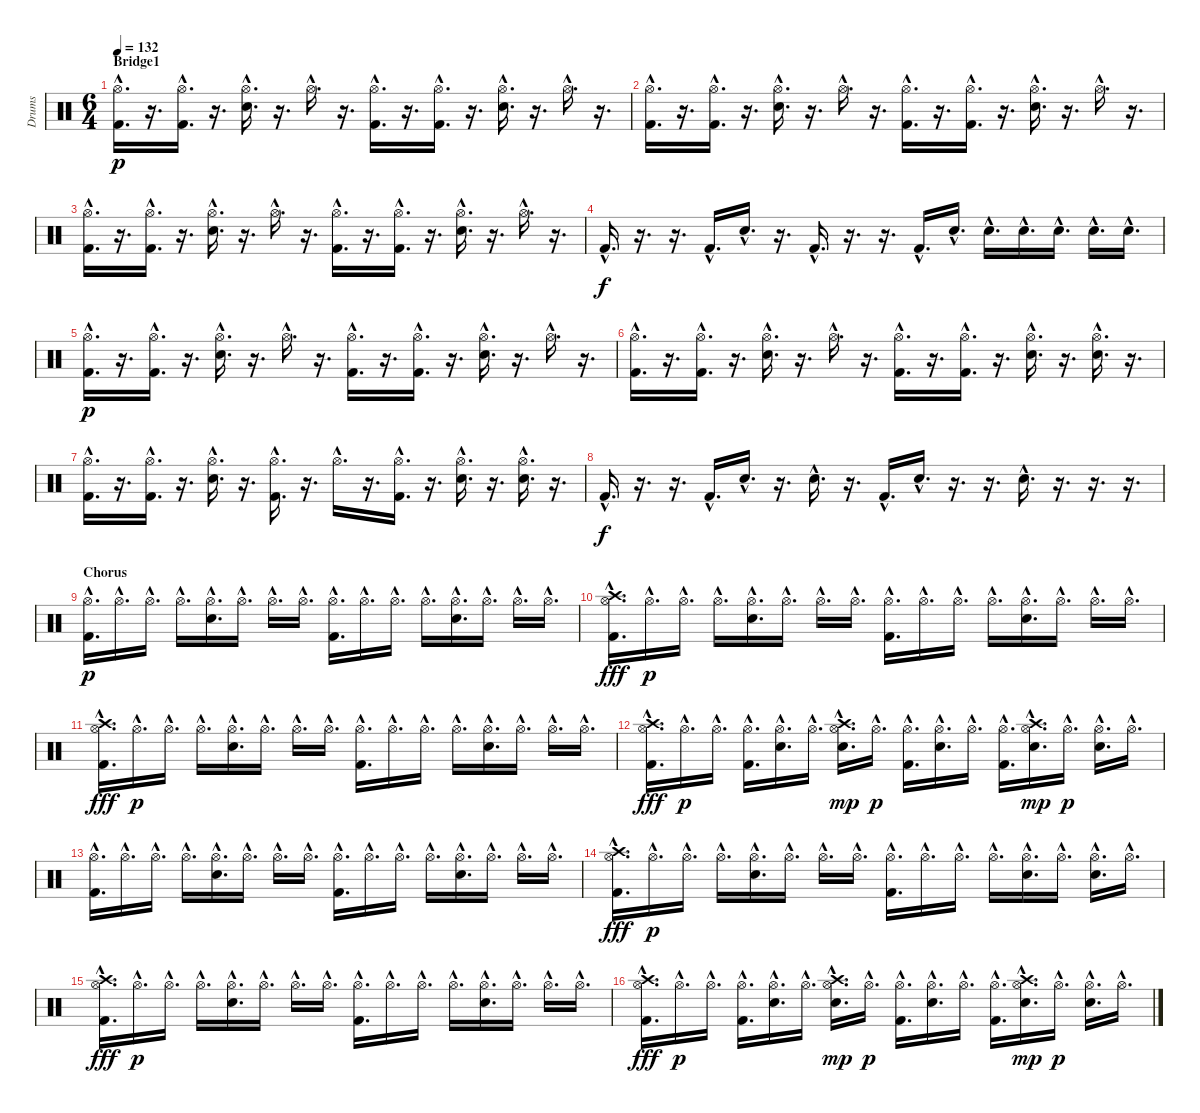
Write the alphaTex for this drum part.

\track ("Drums" "Drums") {instrument percussion}
\staff {score}
\articulation defaults
\ts (6 4)
\section ("" "Bridge1")
\tempo 132
\clef neutral
\ks c
("Hi-Hat (open)"{hac} "Kick (hit) 2"{hac}).16{d dy p} r.16{d} ("Hi-Hat (open)"{hac} "Kick (hit) 2"{hac}).16{d} r.16{d} ("Hi-Hat (open)"{hac} "Electric Snare (hit)"{hac}).16{d} r.16{d} "Hi-Hat (open)"{hac}.16{d} r.16{d} ("Hi-Hat (open)"{hac} "Kick (hit) 2"{hac}).16{d} r.16{d} ("Hi-Hat (open)"{hac} "Kick (hit) 2"{hac}).16{d} r.16{d} ("Hi-Hat (open)"{hac} "Electric Snare (hit)"{hac}).16{d} r.16{d} "Hi-Hat (open)"{hac}.16{d} r.16{d} |
("Hi-Hat (open)"{hac} "Kick (hit) 2"{hac}).16{d} r.16{d} ("Hi-Hat (open)"{hac} "Kick (hit) 2"{hac}).16{d} r.16{d} ("Hi-Hat (open)"{hac} "Electric Snare (hit)"{hac}).16{d} r.16{d} "Hi-Hat (open)"{hac}.16{d} r.16{d} ("Hi-Hat (open)"{hac} "Kick (hit) 2"{hac}).16{d} r.16{d} ("Hi-Hat (open)"{hac} "Kick (hit) 2"{hac}).16{d} r.16{d} ("Hi-Hat (open)"{hac} "Electric Snare (hit)"{hac}).16{d} r.16{d} "Hi-Hat (open)"{hac}.16{d} r.16{d} |
("Hi-Hat (open)"{hac} "Kick (hit) 2"{hac}).16{d} r.16{d} ("Hi-Hat (open)"{hac} "Kick (hit) 2"{hac}).16{d} r.16{d} ("Hi-Hat (open)"{hac} "Electric Snare (hit)"{hac}).16{d} r.16{d} "Hi-Hat (open)"{hac}.16{d} r.16{d} ("Hi-Hat (open)"{hac} "Kick (hit) 2"{hac}).16{d} r.16{d} ("Hi-Hat (open)"{hac} "Kick (hit) 2"{hac}).16{d} r.16{d} ("Hi-Hat (open)"{hac} "Electric Snare (hit)"{hac}).16{d} r.16{d} "Hi-Hat (open)"{hac}.16{d} r.16{d} |
"Kick (hit) 2"{hac}.16{d dy f} r.16{d} r.16{d} "Kick (hit) 2"{hac}.16{d} "Electric Snare (hit)"{hac}.16{d} r.16{d} "Kick (hit) 2"{hac}.16{d} r.16{d} r.16{d} "Kick (hit) 2"{hac}.16{d} "Electric Snare (hit)"{hac}.16{d} "Electric Snare (hit)"{hac}.16{d} "Electric Snare (hit)"{hac}.16{d} "Electric Snare (hit)"{hac}.16{d} "Electric Snare (hit)"{hac}.16{d} "Electric Snare (hit)"{hac}.16{d} |
("Hi-Hat (open)"{hac} "Kick (hit) 2"{hac}).16{d dy p} r.16{d} ("Hi-Hat (open)"{hac} "Kick (hit) 2"{hac}).16{d} r.16{d} ("Hi-Hat (open)"{hac} "Electric Snare (hit)"{hac}).16{d} r.16{d} "Hi-Hat (open)"{hac}.16{d} r.16{d} ("Hi-Hat (open)"{hac} "Kick (hit) 2"{hac}).16{d} r.16{d} ("Hi-Hat (open)"{hac} "Kick (hit) 2"{hac}).16{d} r.16{d} ("Hi-Hat (open)"{hac} "Electric Snare (hit)"{hac}).16{d} r.16{d} "Hi-Hat (open)"{hac}.16{d} r.16{d} |
("Hi-Hat (open)"{hac} "Kick (hit) 2"{hac}).16{d} r.16{d} ("Hi-Hat (open)"{hac} "Kick (hit) 2"{hac}).16{d} r.16{d} ("Hi-Hat (open)"{hac} "Electric Snare (hit)"{hac}).16{d} r.16{d} "Hi-Hat (open)"{hac}.16{d} r.16{d} ("Hi-Hat (open)"{hac} "Kick (hit) 2"{hac}).16{d} r.16{d} ("Hi-Hat (open)"{hac} "Kick (hit) 2"{hac}).16{d} r.16{d} ("Hi-Hat (open)"{hac} "Electric Snare (hit)"{hac}).16{d} r.16{d} ("Hi-Hat (open)"{hac} "Electric Snare (hit)"{hac}).16{d} r.16{d} |
("Hi-Hat (open)"{hac} "Kick (hit) 2"{hac}).16{d} r.16{d} ("Hi-Hat (open)"{hac} "Kick (hit) 2"{hac}).16{d} r.16{d} ("Hi-Hat (open)"{hac} "Electric Snare (hit)"{hac}).16{d} r.16{d} ("Hi-Hat (open)"{hac} "Kick (hit) 2"{hac}).16{d} r.16{d} "Hi-Hat (open)"{hac}.16{d} r.16{d} ("Hi-Hat (open)"{hac} "Kick (hit) 2"{hac}).16{d} r.16{d} ("Hi-Hat (open)"{hac} "Electric Snare (hit)"{hac}).16{d} r.16{d} ("Hi-Hat (open)"{hac} "Electric Snare (hit)"{hac}).16{d} r.16{d} |
"Kick (hit) 2"{hac}.16{d dy f} r.16{d} r.16{d} "Kick (hit) 2"{hac}.16{d} "Electric Snare (hit)"{hac}.16{d} r.16{d} "Electric Snare (hit)"{hac}.16{d} r.16{d} "Kick (hit) 2"{hac}.16{d} "Electric Snare (hit)"{hac}.16{d} r.16{d} r.16{d} "Electric Snare (hit)"{hac}.16{d} r.16{d} r.16{d} r.16{d} |
\section ("" "Chorus")
("Kick (hit) 2"{hac} "Hi-Hat (open)"{hac}).16{d dy p} "Hi-Hat (open)"{hac}.16{d} "Hi-Hat (open)"{hac}.16{d} "Hi-Hat (open)"{hac}.16{d} ("Electric Snare (hit)"{hac} "Hi-Hat (open)"{hac}).16{d} "Hi-Hat (open)"{hac}.16{d} "Hi-Hat (open)"{hac}.16{d} "Hi-Hat (open)"{hac}.16{d} ("Kick (hit) 2"{hac} "Hi-Hat (open)"{hac}).16{d} "Hi-Hat (open)"{hac}.16{d} "Hi-Hat (open)"{hac}.16{d} "Hi-Hat (open)"{hac}.16{d} ("Electric Snare (hit)"{hac} "Hi-Hat (open)"{hac}).16{d} "Hi-Hat (open)"{hac}.16{d} "Hi-Hat (open)"{hac}.16{d} "Hi-Hat (open)"{hac}.16{d} |
("Crash high (hit)"{hac} "Hi-Hat (open)"{hac} "Kick (hit) 2"{hac}).16{d dy fff} "Hi-Hat (open)"{hac}.16{d dy p} "Hi-Hat (open)"{hac}.16{d} "Hi-Hat (open)"{hac}.16{d} ("Electric Snare (hit)"{hac} "Hi-Hat (open)"{hac}).16{d} "Hi-Hat (open)"{hac}.16{d} "Hi-Hat (open)"{hac}.16{d} "Hi-Hat (open)"{hac}.16{d} ("Kick (hit) 2"{hac} "Hi-Hat (open)"{hac}).16{d} "Hi-Hat (open)"{hac}.16{d} "Hi-Hat (open)"{hac}.16{d} "Hi-Hat (open)"{hac}.16{d} ("Electric Snare (hit)"{hac} "Hi-Hat (open)"{hac}).16{d} "Hi-Hat (open)"{hac}.16{d} "Hi-Hat (open)"{hac}.16{d} "Hi-Hat (open)"{hac}.16{d} |
("Crash high (hit)"{hac} "Hi-Hat (open)"{hac} "Kick (hit) 2"{hac}).16{d dy fff} "Hi-Hat (open)"{hac}.16{d dy p} "Hi-Hat (open)"{hac}.16{d} "Hi-Hat (open)"{hac}.16{d} ("Electric Snare (hit)"{hac} "Hi-Hat (open)"{hac}).16{d} "Hi-Hat (open)"{hac}.16{d} "Hi-Hat (open)"{hac}.16{d} "Hi-Hat (open)"{hac}.16{d} ("Kick (hit) 2"{hac} "Hi-Hat (open)"{hac}).16{d} "Hi-Hat (open)"{hac}.16{d} "Hi-Hat (open)"{hac}.16{d} "Hi-Hat (open)"{hac}.16{d} ("Electric Snare (hit)"{hac} "Hi-Hat (open)"{hac}).16{d} "Hi-Hat (open)"{hac}.16{d} "Hi-Hat (open)"{hac}.16{d} "Hi-Hat (open)"{hac}.16{d} |
("Crash high (hit)"{hac} "Hi-Hat (open)"{hac} "Kick (hit) 2"{hac}).16{d dy fff} "Hi-Hat (open)"{hac}.16{d dy p} "Hi-Hat (open)"{hac}.16{d} ("Kick (hit) 2"{hac} "Hi-Hat (open)"{hac}).16{d} ("Electric Snare (hit)"{hac} "Hi-Hat (open)"{hac}).16{d} "Hi-Hat (open)"{hac}.16{d} ("Electric Snare (hit)"{hac} "Hi-Hat (open)"{hac} "Crash high (hit)"{hac}).16{d dy mp} "Hi-Hat (open)"{hac}.16{d dy p} ("Kick (hit) 2"{hac} "Hi-Hat (open)"{hac}).16{d} ("Electric Snare (hit)"{hac} "Hi-Hat (open)"{hac}).16{d} "Hi-Hat (open)"{hac}.16{d} ("Kick (hit) 2"{hac} "Hi-Hat (open)"{hac}).16{d} ("Electric Snare (hit)"{hac} "Hi-Hat (open)"{hac} "Crash high (hit)"{hac}).16{d dy mp} "Hi-Hat (open)"{hac}.16{d dy p} ("Electric Snare (hit)"{hac} "Hi-Hat (open)"{hac}).16{d} "Hi-Hat (open)"{hac}.16{d} |
("Kick (hit) 2"{hac} "Hi-Hat (open)"{hac}).16{d} "Hi-Hat (open)"{hac}.16{d} "Hi-Hat (open)"{hac}.16{d} "Hi-Hat (open)"{hac}.16{d} ("Electric Snare (hit)"{hac} "Hi-Hat (open)"{hac}).16{d} "Hi-Hat (open)"{hac}.16{d} "Hi-Hat (open)"{hac}.16{d} "Hi-Hat (open)"{hac}.16{d} ("Kick (hit) 2"{hac} "Hi-Hat (open)"{hac}).16{d} "Hi-Hat (open)"{hac}.16{d} "Hi-Hat (open)"{hac}.16{d} "Hi-Hat (open)"{hac}.16{d} ("Electric Snare (hit)"{hac} "Hi-Hat (open)"{hac}).16{d} "Hi-Hat (open)"{hac}.16{d} "Hi-Hat (open)"{hac}.16{d} "Hi-Hat (open)"{hac}.16{d} |
("Crash high (hit)"{hac} "Hi-Hat (open)"{hac} "Kick (hit) 2"{hac}).16{d dy fff} "Hi-Hat (open)"{hac}.16{d dy p} "Hi-Hat (open)"{hac}.16{d} "Hi-Hat (open)"{hac}.16{d} ("Electric Snare (hit)"{hac} "Hi-Hat (open)"{hac}).16{d} "Hi-Hat (open)"{hac}.16{d} "Hi-Hat (open)"{hac}.16{d} "Hi-Hat (open)"{hac}.16{d} ("Kick (hit) 2"{hac} "Hi-Hat (open)"{hac}).16{d} "Hi-Hat (open)"{hac}.16{d} "Hi-Hat (open)"{hac}.16{d} "Hi-Hat (open)"{hac}.16{d} ("Electric Snare (hit)"{hac} "Hi-Hat (open)"{hac}).16{d} "Hi-Hat (open)"{hac}.16{d} ("Electric Snare (hit)"{hac} "Hi-Hat (open)"{hac}).16{d} "Hi-Hat (open)"{hac}.16{d} |
("Crash high (hit)"{hac} "Hi-Hat (open)"{hac} "Kick (hit) 2"{hac}).16{d dy fff} "Hi-Hat (open)"{hac}.16{d dy p} "Hi-Hat (open)"{hac}.16{d} "Hi-Hat (open)"{hac}.16{d} ("Electric Snare (hit)"{hac} "Hi-Hat (open)"{hac}).16{d} "Hi-Hat (open)"{hac}.16{d} "Hi-Hat (open)"{hac}.16{d} "Hi-Hat (open)"{hac}.16{d} ("Kick (hit) 2"{hac} "Hi-Hat (open)"{hac}).16{d} "Hi-Hat (open)"{hac}.16{d} "Hi-Hat (open)"{hac}.16{d} "Hi-Hat (open)"{hac}.16{d} ("Electric Snare (hit)"{hac} "Hi-Hat (open)"{hac}).16{d} "Hi-Hat (open)"{hac}.16{d} "Hi-Hat (open)"{hac}.16{d} "Hi-Hat (open)"{hac}.16{d} |
("Crash high (hit)"{hac} "Hi-Hat (open)"{hac} "Kick (hit) 2"{hac}).16{d dy fff} "Hi-Hat (open)"{hac}.16{d dy p} "Hi-Hat (open)"{hac}.16{d} ("Kick (hit) 2"{hac} "Hi-Hat (open)"{hac}).16{d} ("Electric Snare (hit)"{hac} "Hi-Hat (open)"{hac}).16{d} "Hi-Hat (open)"{hac}.16{d} ("Electric Snare (hit)"{hac} "Hi-Hat (open)"{hac} "Crash high (hit)"{hac}).16{d dy mp} "Hi-Hat (open)"{hac}.16{d dy p} ("Kick (hit) 2"{hac} "Hi-Hat (open)"{hac}).16{d} ("Electric Snare (hit)"{hac} "Hi-Hat (open)"{hac}).16{d} "Hi-Hat (open)"{hac}.16{d} ("Kick (hit) 2"{hac} "Hi-Hat (open)"{hac}).16{d} ("Electric Snare (hit)"{hac} "Hi-Hat (open)"{hac} "Crash high (hit)"{hac}).16{d dy mp} "Hi-Hat (open)"{hac}.16{d dy p} ("Electric Snare (hit)"{hac} "Hi-Hat (open)"{hac}).16{d} "Hi-Hat (open)"{hac}.16{d}
